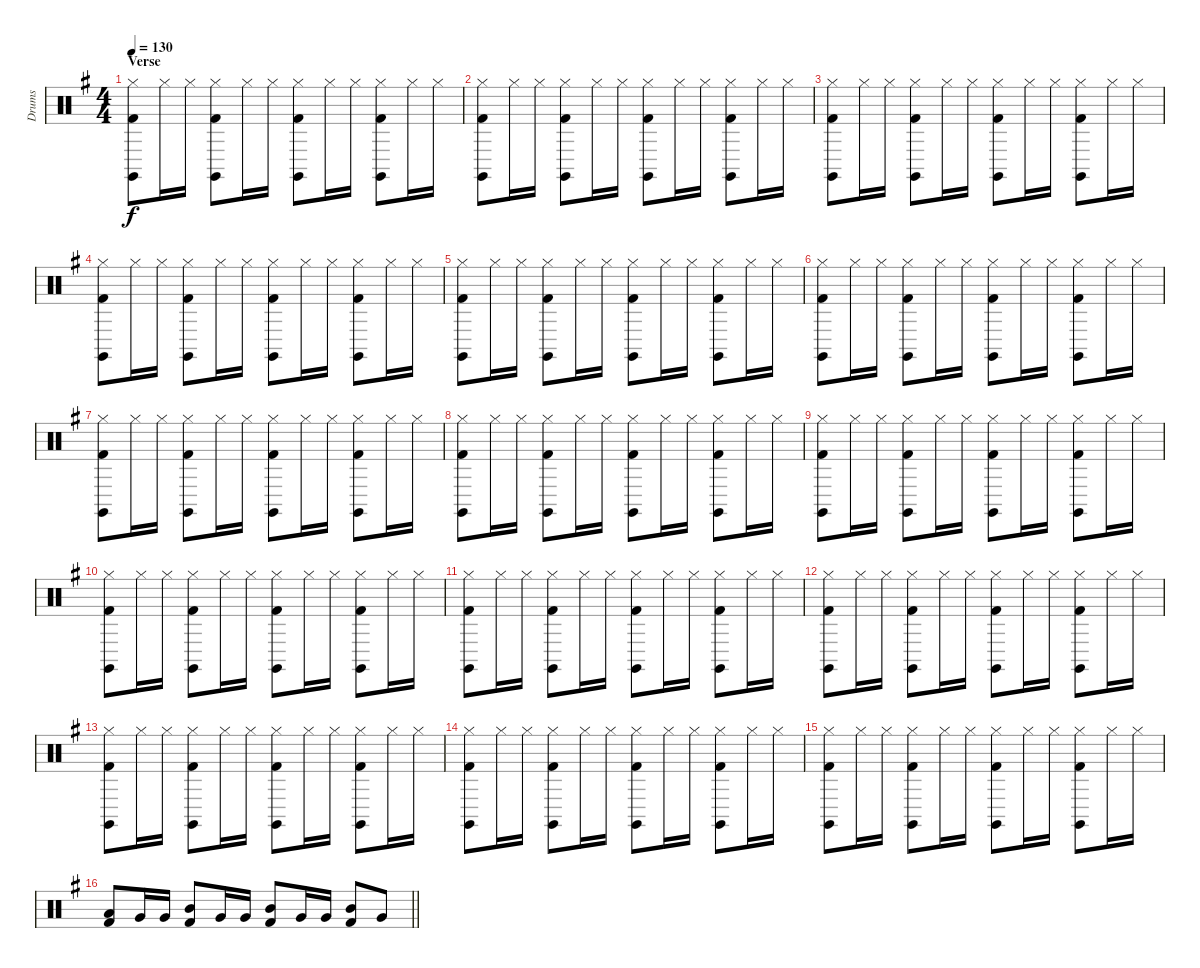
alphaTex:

\track ("Drums" "Drums") {instrument percussion}
\staff {score}
\articulation defaults
\ts (4 4)
\section ("" "Verse")
\tempo 130
\clef neutral
\ks g
("Hi-Hat (closed)" "Claves (hit)" "Kick (hit) 2").8{dy f} "Hi-Hat (closed)".16 "Hi-Hat (closed)".16 ("Hi-Hat (closed)" "Claves (hit)" "Kick (hit) 2").8 "Hi-Hat (closed)".16 "Hi-Hat (closed)".16 ("Hi-Hat (closed)" "Claves (hit)" "Kick (hit) 2").8 "Hi-Hat (closed)".16 "Hi-Hat (closed)".16 ("Hi-Hat (closed)" "Claves (hit)" "Kick (hit) 2").8 "Hi-Hat (closed)".16 "Hi-Hat (closed)".16 |
("Hi-Hat (closed)" "Claves (hit)" "Kick (hit) 2").8 "Hi-Hat (closed)".16 "Hi-Hat (closed)".16 ("Hi-Hat (closed)" "Claves (hit)" "Kick (hit) 2").8 "Hi-Hat (closed)".16 "Hi-Hat (closed)".16 ("Hi-Hat (closed)" "Claves (hit)" "Kick (hit) 2").8 "Hi-Hat (closed)".16 "Hi-Hat (closed)".16 ("Hi-Hat (closed)" "Claves (hit)" "Kick (hit) 2").8 "Hi-Hat (closed)".16 "Hi-Hat (closed)".16 |
("Hi-Hat (closed)" "Claves (hit)" "Kick (hit) 2").8 "Hi-Hat (closed)".16 "Hi-Hat (closed)".16 ("Hi-Hat (closed)" "Claves (hit)" "Kick (hit) 2").8 "Hi-Hat (closed)".16 "Hi-Hat (closed)".16 ("Hi-Hat (closed)" "Claves (hit)" "Kick (hit) 2").8 "Hi-Hat (closed)".16 "Hi-Hat (closed)".16 ("Hi-Hat (closed)" "Claves (hit)" "Kick (hit) 2").8 "Hi-Hat (closed)".16 "Hi-Hat (closed)".16 |
("Hi-Hat (closed)" "Claves (hit)" "Kick (hit) 2").8 "Hi-Hat (closed)".16 "Hi-Hat (closed)".16 ("Hi-Hat (closed)" "Claves (hit)" "Kick (hit) 2").8 "Hi-Hat (closed)".16 "Hi-Hat (closed)".16 ("Hi-Hat (closed)" "Claves (hit)" "Kick (hit) 2").8 "Hi-Hat (closed)".16 "Hi-Hat (closed)".16 ("Hi-Hat (closed)" "Claves (hit)" "Kick (hit) 2").8 "Hi-Hat (closed)".16 "Hi-Hat (closed)".16 |
("Hi-Hat (closed)" "Claves (hit)" "Kick (hit) 2").8 "Hi-Hat (closed)".16 "Hi-Hat (closed)".16 ("Hi-Hat (closed)" "Claves (hit)" "Kick (hit) 2").8 "Hi-Hat (closed)".16 "Hi-Hat (closed)".16 ("Hi-Hat (closed)" "Claves (hit)" "Kick (hit) 2").8 "Hi-Hat (closed)".16 "Hi-Hat (closed)".16 ("Hi-Hat (closed)" "Claves (hit)" "Kick (hit) 2").8 "Hi-Hat (closed)".16 "Hi-Hat (closed)".16 |
("Hi-Hat (closed)" "Claves (hit)" "Kick (hit) 2").8 "Hi-Hat (closed)".16 "Hi-Hat (closed)".16 ("Hi-Hat (closed)" "Claves (hit)" "Kick (hit) 2").8 "Hi-Hat (closed)".16 "Hi-Hat (closed)".16 ("Hi-Hat (closed)" "Claves (hit)" "Kick (hit) 2").8 "Hi-Hat (closed)".16 "Hi-Hat (closed)".16 ("Hi-Hat (closed)" "Claves (hit)" "Kick (hit) 2").8 "Hi-Hat (closed)".16 "Hi-Hat (closed)".16 |
("Hi-Hat (closed)" "Claves (hit)" "Kick (hit) 2").8 "Hi-Hat (closed)".16 "Hi-Hat (closed)".16 ("Hi-Hat (closed)" "Claves (hit)" "Kick (hit) 2").8 "Hi-Hat (closed)".16 "Hi-Hat (closed)".16 ("Hi-Hat (closed)" "Claves (hit)" "Kick (hit) 2").8 "Hi-Hat (closed)".16 "Hi-Hat (closed)".16 ("Hi-Hat (closed)" "Claves (hit)" "Kick (hit) 2").8 "Hi-Hat (closed)".16 "Hi-Hat (closed)".16 |
("Hi-Hat (closed)" "Claves (hit)" "Kick (hit) 2").8 "Hi-Hat (closed)".16 "Hi-Hat (closed)".16 ("Hi-Hat (closed)" "Claves (hit)" "Kick (hit) 2").8 "Hi-Hat (closed)".16 "Hi-Hat (closed)".16 ("Hi-Hat (closed)" "Claves (hit)" "Kick (hit) 2").8 "Hi-Hat (closed)".16 "Hi-Hat (closed)".16 ("Hi-Hat (closed)" "Claves (hit)" "Kick (hit) 2").8 "Hi-Hat (closed)".16 "Hi-Hat (closed)".16 |
("Hi-Hat (closed)" "Claves (hit)" "Kick (hit) 2").8 "Hi-Hat (closed)".16 "Hi-Hat (closed)".16 ("Hi-Hat (closed)" "Claves (hit)" "Kick (hit) 2").8 "Hi-Hat (closed)".16 "Hi-Hat (closed)".16 ("Hi-Hat (closed)" "Claves (hit)" "Kick (hit) 2").8 "Hi-Hat (closed)".16 "Hi-Hat (closed)".16 ("Hi-Hat (closed)" "Claves (hit)" "Kick (hit) 2").8 "Hi-Hat (closed)".16 "Hi-Hat (closed)".16 |
("Hi-Hat (closed)" "Claves (hit)" "Kick (hit) 2").8 "Hi-Hat (closed)".16 "Hi-Hat (closed)".16 ("Hi-Hat (closed)" "Claves (hit)" "Kick (hit) 2").8 "Hi-Hat (closed)".16 "Hi-Hat (closed)".16 ("Hi-Hat (closed)" "Claves (hit)" "Kick (hit) 2").8 "Hi-Hat (closed)".16 "Hi-Hat (closed)".16 ("Hi-Hat (closed)" "Claves (hit)" "Kick (hit) 2").8 "Hi-Hat (closed)".16 "Hi-Hat (closed)".16 |
("Hi-Hat (closed)" "Claves (hit)" "Kick (hit) 2").8 "Hi-Hat (closed)".16 "Hi-Hat (closed)".16 ("Hi-Hat (closed)" "Claves (hit)" "Kick (hit) 2").8 "Hi-Hat (closed)".16 "Hi-Hat (closed)".16 ("Hi-Hat (closed)" "Claves (hit)" "Kick (hit) 2").8 "Hi-Hat (closed)".16 "Hi-Hat (closed)".16 ("Hi-Hat (closed)" "Claves (hit)" "Kick (hit) 2").8 "Hi-Hat (closed)".16 "Hi-Hat (closed)".16 |
("Hi-Hat (closed)" "Claves (hit)" "Kick (hit) 2").8 "Hi-Hat (closed)".16 "Hi-Hat (closed)".16 ("Hi-Hat (closed)" "Claves (hit)" "Kick (hit) 2").8 "Hi-Hat (closed)".16 "Hi-Hat (closed)".16 ("Hi-Hat (closed)" "Claves (hit)" "Kick (hit) 2").8 "Hi-Hat (closed)".16 "Hi-Hat (closed)".16 ("Hi-Hat (closed)" "Claves (hit)" "Kick (hit) 2").8 "Hi-Hat (closed)".16 "Hi-Hat (closed)".16 |
("Hi-Hat (closed)" "Claves (hit)" "Kick (hit) 2").8 "Hi-Hat (closed)".16 "Hi-Hat (closed)".16 ("Hi-Hat (closed)" "Claves (hit)" "Kick (hit) 2").8 "Hi-Hat (closed)".16 "Hi-Hat (closed)".16 ("Hi-Hat (closed)" "Claves (hit)" "Kick (hit) 2").8 "Hi-Hat (closed)".16 "Hi-Hat (closed)".16 ("Hi-Hat (closed)" "Claves (hit)" "Kick (hit) 2").8 "Hi-Hat (closed)".16 "Hi-Hat (closed)".16 |
("Hi-Hat (closed)" "Claves (hit)" "Kick (hit) 2").8 "Hi-Hat (closed)".16 "Hi-Hat (closed)".16 ("Hi-Hat (closed)" "Claves (hit)" "Kick (hit) 2").8 "Hi-Hat (closed)".16 "Hi-Hat (closed)".16 ("Hi-Hat (closed)" "Claves (hit)" "Kick (hit) 2").8 "Hi-Hat (closed)".16 "Hi-Hat (closed)".16 ("Hi-Hat (closed)" "Claves (hit)" "Kick (hit) 2").8 "Hi-Hat (closed)".16 "Hi-Hat (closed)".16 |
("Hi-Hat (closed)" "Claves (hit)" "Kick (hit) 2").8 "Hi-Hat (closed)".16 "Hi-Hat (closed)".16 ("Hi-Hat (closed)" "Claves (hit)" "Kick (hit) 2").8 "Hi-Hat (closed)".16 "Hi-Hat (closed)".16 ("Hi-Hat (closed)" "Claves (hit)" "Kick (hit) 2").8 "Hi-Hat (closed)".16 "Hi-Hat (closed)".16 ("Hi-Hat (closed)" "Claves (hit)" "Kick (hit) 2").8 "Hi-Hat (closed)".16 "Hi-Hat (closed)".16 |
\barLineRight lightlight
("Low Tom (hit)" "Kick (hit) 2").8 "Very Low Tom (hit)".16 "Very Low Tom (hit)".16 ("Mid Tom (hit)" "Kick (hit) 2").8 "Very Low Tom (hit)".16 "Very Low Tom (hit)".16 ("Mid Tom (hit)" "Kick (hit) 2").8 "Very Low Tom (hit)".16 "Very Low Tom (hit)".16 ("Mid Tom (hit)" "Kick (hit) 2").8 "Very Low Tom (hit)".8
